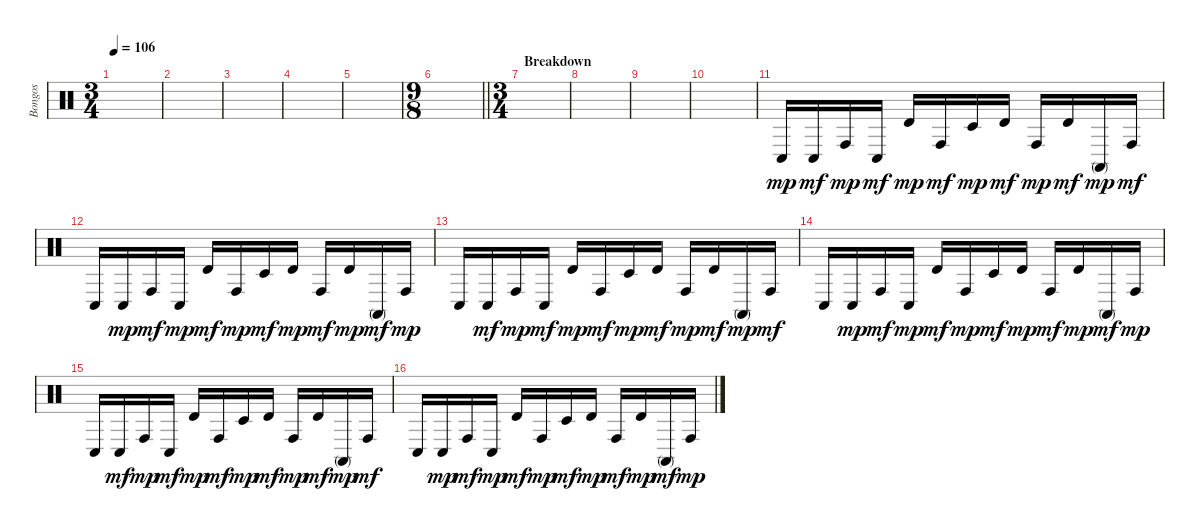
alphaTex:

\track ("Bongos" "Bongos") {instrument percussion}
\staff {score}
\articulation defaults
\ts (3 4)
\tempo 106
\clef neutral
\ks c
|
|
|
|
|
\ts (9 8)
\barLineRight lightlight
|
\ts (3 4)
\section ("" "Breakdown")
|
|
|
|
"Conga low (hit)".16{dy mp} "Conga low (hit)".16{dy mf} "Conga high (hit)".16{dy mp} "Conga low (hit)".16{dy mf} "Timbale high (hit)".16{dy mp} "Conga high (hit)".16{dy mf} "Timbale low (hit)".16{dy mp} "Timbale high (hit)".16{dy mf} "Conga high (hit)".16{dy mp} "Timbale high (hit)".16{dy mf} "Conga high (mute)".16{dy mp} "Conga high (hit)".16{dy mf} |
"Conga low (hit)".16 "Conga low (hit)".16{dy mp} "Conga high (hit)".16{dy mf} "Conga low (hit)".16{dy mp} "Timbale high (hit)".16{dy mf} "Conga high (hit)".16{dy mp} "Timbale low (hit)".16{dy mf} "Timbale high (hit)".16{dy mp} "Conga high (hit)".16{dy mf} "Timbale high (hit)".16{dy mp} "Conga high (mute)".16{dy mf} "Conga high (hit)".16{dy mp} |
"Conga low (hit)".16 "Conga low (hit)".16{dy mf} "Conga high (hit)".16{dy mp} "Conga low (hit)".16{dy mf} "Timbale high (hit)".16{dy mp} "Conga high (hit)".16{dy mf} "Timbale low (hit)".16{dy mp} "Timbale high (hit)".16{dy mf} "Conga high (hit)".16{dy mp} "Timbale high (hit)".16{dy mf} "Conga high (mute)".16{dy mp} "Conga high (hit)".16{dy mf} |
"Conga low (hit)".16 "Conga low (hit)".16{dy mp} "Conga high (hit)".16{dy mf} "Conga low (hit)".16{dy mp} "Timbale high (hit)".16{dy mf} "Conga high (hit)".16{dy mp} "Timbale low (hit)".16{dy mf} "Timbale high (hit)".16{dy mp} "Conga high (hit)".16{dy mf} "Timbale high (hit)".16{dy mp} "Conga high (mute)".16{dy mf} "Conga high (hit)".16{dy mp} |
"Conga low (hit)".16 "Conga low (hit)".16{dy mf} "Conga high (hit)".16{dy mp} "Conga low (hit)".16{dy mf} "Timbale high (hit)".16{dy mp} "Conga high (hit)".16{dy mf} "Timbale low (hit)".16{dy mp} "Timbale high (hit)".16{dy mf} "Conga high (hit)".16{dy mp} "Timbale high (hit)".16{dy mf} "Conga high (mute)".16{dy mp} "Conga high (hit)".16{dy mf} |
"Conga low (hit)".16 "Conga low (hit)".16{dy mp} "Conga high (hit)".16{dy mf} "Conga low (hit)".16{dy mp} "Timbale high (hit)".16{dy mf} "Conga high (hit)".16{dy mp} "Timbale low (hit)".16{dy mf} "Timbale high (hit)".16{dy mp} "Conga high (hit)".16{dy mf} "Timbale high (hit)".16{dy mp} "Conga high (mute)".16{dy mf} "Conga high (hit)".16{dy mp}
